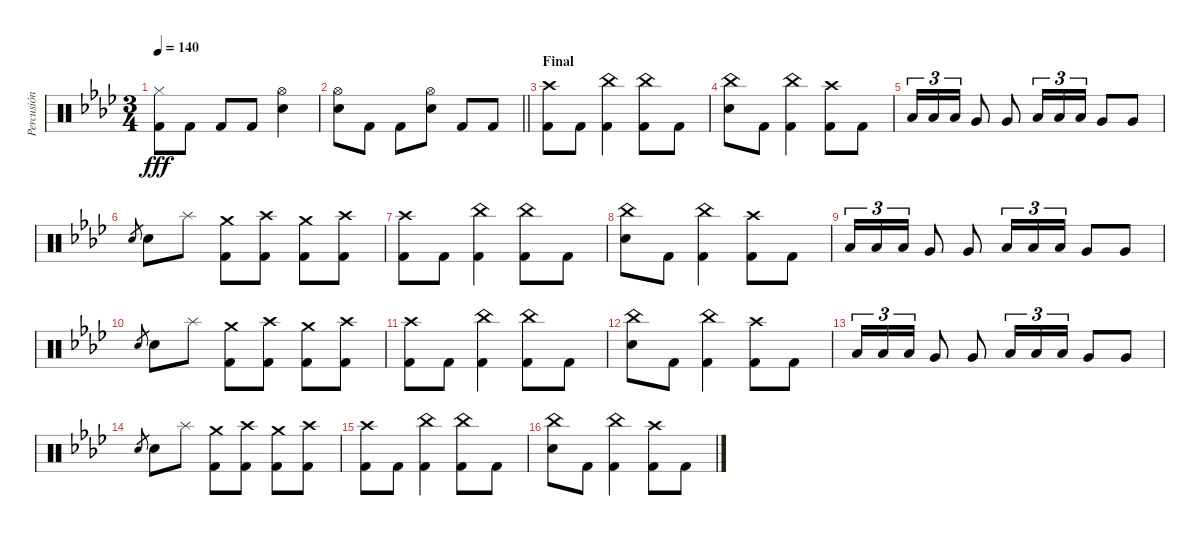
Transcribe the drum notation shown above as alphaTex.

\track ("Percusión" "Percusión") {instrument percussion}
\staff {score}
\articulation defaults
\ts (3 4)
\tempo 140
\clef neutral
\ks fminor
("Hi-Hat (closed)" "Kick (hit) 2").8{dy fff} "Kick (hit) 2".8 "Kick (hit) 2".8 "Kick (hit) 2".8 ("Hi-Hat (open)" "Snare (hit) 2").4 |
\barLineRight lightlight
("Hi-Hat (open)" "Snare (hit) 2").8 "Kick (hit) 2".8 "Kick (hit) 2".8 ("Hi-Hat (open)" "Snare (hit) 2").8 "Kick (hit) 2".8 "Kick (hit) 2".8 |
\section ("" "Final")
("Crash high (hit)" "Kick (hit) 2").8 "Kick (hit) 2".8 ("China (hit)" "Kick (hit) 2").4 ("China (hit)" "Kick (hit) 2").8 "Kick (hit) 2".8 |
("China (hit)" "Snare (hit) 2").8 "Kick (hit) 2".8 ("China (hit)" "Kick (hit) 2").4 ("Crash high (hit)" "Kick (hit) 2").8 "Kick (hit) 2".8 |
"Low Tom (hit)".16{tu (3 2)} "Low Tom (hit)".16{tu (3 2)} "Low Tom (hit)".16{tu (3 2)} "Very Low Tom (hit)".8 "Very Low Tom (hit)".8 "Low Tom (hit)".16{tu (3 2)} "Low Tom (hit)".16{tu (3 2)} "Low Tom (hit)".16{tu (3 2)} "Very Low Tom (hit)".8 "Very Low Tom (hit)".8 |
"Snare (hit) 2".8{gr} "Snare (hit) 2".8 "Splash (hit)".8 ("Crash medium (hit)" "Kick (hit) 2").8 ("Crash high (hit)" "Kick (hit) 2").8 ("Crash medium (hit)" "Kick (hit) 2").8 ("Crash high (hit)" "Kick (hit) 2").8 |
("Crash high (hit)" "Kick (hit) 2").8 "Kick (hit) 2".8 ("China (hit)" "Kick (hit) 2").4 ("China (hit)" "Kick (hit) 2").8 "Kick (hit) 2".8 |
("China (hit)" "Snare (hit) 2").8 "Kick (hit) 2".8 ("China (hit)" "Kick (hit) 2").4 ("Crash high (hit)" "Kick (hit) 2").8 "Kick (hit) 2".8 |
"Low Tom (hit)".16{tu (3 2)} "Low Tom (hit)".16{tu (3 2)} "Low Tom (hit)".16{tu (3 2)} "Very Low Tom (hit)".8 "Very Low Tom (hit)".8 "Low Tom (hit)".16{tu (3 2)} "Low Tom (hit)".16{tu (3 2)} "Low Tom (hit)".16{tu (3 2)} "Very Low Tom (hit)".8 "Very Low Tom (hit)".8 |
"Snare (hit) 2".8{gr} "Snare (hit) 2".8 "Splash (hit)".8 ("Crash medium (hit)" "Kick (hit) 2").8 ("Crash high (hit)" "Kick (hit) 2").8 ("Crash medium (hit)" "Kick (hit) 2").8 ("Crash high (hit)" "Kick (hit) 2").8 |
("Crash high (hit)" "Kick (hit) 2").8 "Kick (hit) 2".8 ("China (hit)" "Kick (hit) 2").4 ("China (hit)" "Kick (hit) 2").8 "Kick (hit) 2".8 |
("China (hit)" "Snare (hit) 2").8 "Kick (hit) 2".8 ("China (hit)" "Kick (hit) 2").4 ("Crash high (hit)" "Kick (hit) 2").8 "Kick (hit) 2".8 |
"Low Tom (hit)".16{tu (3 2)} "Low Tom (hit)".16{tu (3 2)} "Low Tom (hit)".16{tu (3 2)} "Very Low Tom (hit)".8 "Very Low Tom (hit)".8 "Low Tom (hit)".16{tu (3 2)} "Low Tom (hit)".16{tu (3 2)} "Low Tom (hit)".16{tu (3 2)} "Very Low Tom (hit)".8 "Very Low Tom (hit)".8 |
"Snare (hit) 2".8{gr} "Snare (hit) 2".8 "Splash (hit)".8 ("Crash medium (hit)" "Kick (hit) 2").8 ("Crash high (hit)" "Kick (hit) 2").8 ("Crash medium (hit)" "Kick (hit) 2").8 ("Crash high (hit)" "Kick (hit) 2").8 |
("Crash high (hit)" "Kick (hit) 2").8 "Kick (hit) 2".8 ("China (hit)" "Kick (hit) 2").4 ("China (hit)" "Kick (hit) 2").8 "Kick (hit) 2".8 |
("China (hit)" "Snare (hit) 2").8 "Kick (hit) 2".8 ("China (hit)" "Kick (hit) 2").4 ("Crash high (hit)" "Kick (hit) 2").8 "Kick (hit) 2".8
